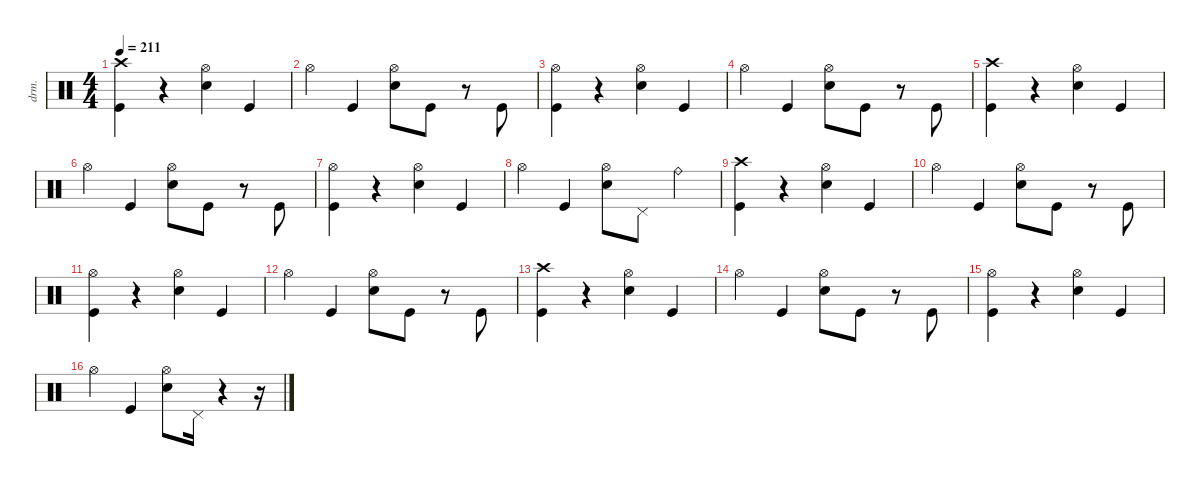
\defaultSystemsLayout 4
\hideDynamics
\bracketExtendMode nobrackets
\otherSystemsTrackNameOrientation horizontal
\track ("Drums" "drm.") {instrument percussion}
\staff {score}
\articulation defaults
\ts (4 4)
\tempo 211
\clef neutral
\ks c
("Kick (hit)" "Crash high (hit)"{acc #}).4{dy ff beam Down} r.4{beam Down} ("Snare (hit) 2" "Hi-Hat (open)"{acc #}).4{beam Down} "Kick (hit)".4{beam Up} |
"Hi-Hat (open)"{acc #}.4{beam Down} "Kick (hit)".4{beam Up} ("Snare (hit) 2" "Hi-Hat (open)"{acc #}).8{beam Down} "Kick (hit)".8{beam Down} r.8{beam Down} "Kick (hit)".8{dy mf beam Up} |
("Kick (hit)" "Hi-Hat (open)"{acc #}).4{dy ff beam Down} r.4{beam Down} ("Snare (hit) 2" "Hi-Hat (open)"{acc #}).4{beam Down} "Kick (hit)".4{beam Up} |
"Hi-Hat (open)"{acc #}.4{beam Down} "Kick (hit)".4{beam Up} ("Snare (hit) 2" "Hi-Hat (open)"{acc #}).8{beam Down} "Kick (hit)".8{beam Down} r.8{beam Down} "Kick (hit)".8{dy mf beam Up} |
("Kick (hit)" "Crash high (hit)"{acc #}).4{dy ff beam Down} r.4{beam Down} ("Snare (hit) 2" "Hi-Hat (open)"{acc #}).4{beam Down} "Kick (hit)".4{beam Up} |
"Hi-Hat (open)"{acc #}.4{beam Down} "Kick (hit)".4{beam Up} ("Snare (hit) 2" "Hi-Hat (open)"{acc #}).8{beam Down} "Kick (hit)".8{beam Down} r.8{beam Down} "Kick (hit)".8{dy mf beam Up} |
("Kick (hit)" "Hi-Hat (open)"{acc #}).4{dy ff beam Down} r.4{beam Down} ("Snare (hit) 2" "Hi-Hat (open)"{acc #}).4{beam Down} "Kick (hit)".4{beam Up} |
"Hi-Hat (open)"{acc #}.4{beam Down} "Kick (hit)".4{dy f beam Up} ("Snare (hit) 2" "Hi-Hat (open)"{acc #}).8{dy ff beam Down} "Pedal Hi-Hat (hit)"{acc #}.8{beam Down} "Ride (bell)".4{dy fff beam Down} |
("Kick (hit)" "Crash high (hit)"{acc #}).4{dy ff beam Down} r.4{beam Down} ("Snare (hit) 2" "Hi-Hat (open)"{acc #}).4{beam Down} "Kick (hit)".4{beam Up} |
"Hi-Hat (open)"{acc #}.4{beam Down} "Kick (hit)".4{beam Up} ("Snare (hit) 2" "Hi-Hat (open)"{acc #}).8{beam Down} "Kick (hit)".8{beam Down} r.8{beam Down} "Kick (hit)".8{dy mf beam Up} |
("Kick (hit)" "Hi-Hat (open)"{acc #}).4{dy ff beam Down} r.4{beam Down} ("Snare (hit) 2" "Hi-Hat (open)"{acc #}).4{beam Down} "Kick (hit)".4{beam Up} |
"Hi-Hat (open)"{acc #}.4{beam Down} "Kick (hit)".4{beam Up} ("Snare (hit) 2" "Hi-Hat (open)"{acc #}).8{beam Down} "Kick (hit)".8{beam Down} r.8{beam Down} "Kick (hit)".8{dy mf beam Up} |
("Kick (hit)" "Crash high (hit)"{acc #}).4{dy ff beam Down} r.4{beam Down} ("Snare (hit) 2" "Hi-Hat (open)"{acc #}).4{beam Down} "Kick (hit)".4{beam Up} |
"Hi-Hat (open)"{acc #}.4{beam Down} "Kick (hit)".4{beam Up} ("Snare (hit) 2" "Hi-Hat (open)"{acc #}).8{beam Down} "Kick (hit)".8{beam Down} r.8{beam Down} "Kick (hit)".8{dy mf beam Up} |
("Kick (hit)" "Hi-Hat (open)"{acc #}).4{dy ff beam Down} r.4{beam Down} ("Snare (hit) 2" "Hi-Hat (open)"{acc #}).4{beam Down} "Kick (hit)".4{beam Up} |
"Hi-Hat (open)"{acc #}.4{beam Down} "Kick (hit)".4{beam Up} ("Snare (hit) 2" "Hi-Hat (open)"{acc #}).8{beam Down} "Pedal Hi-Hat (hit)"{acc #}.16{beam Down} r.4{beam Down} r.16{beam Down}
